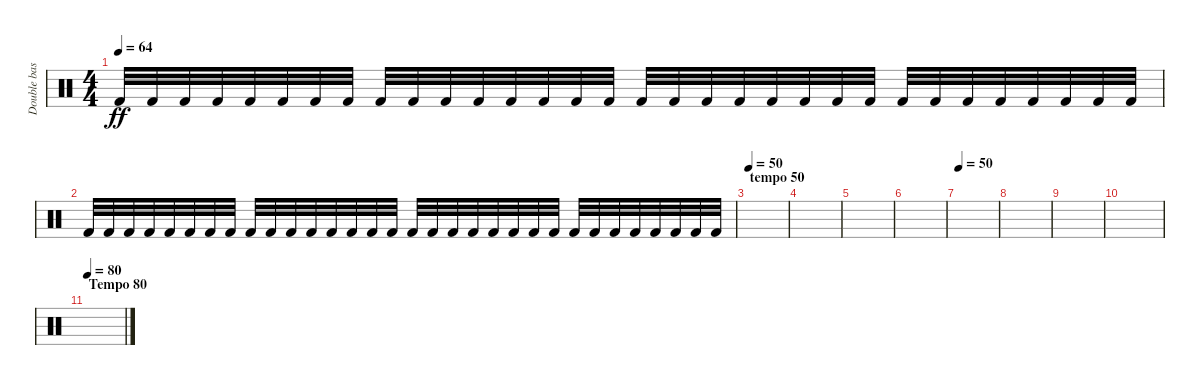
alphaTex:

\track ("Double bass drum" "Double bas") {instrument percussion}
\staff {score}
\articulation defaults
\ts (4 4)
\tempo 64
\clef neutral
\ks c "Kick (hit) 2".32{dy ff} "Kick (hit) 2".32 "Kick (hit) 2".32 "Kick (hit) 2".32 "Kick (hit) 2".32 "Kick (hit) 2".32 "Kick (hit) 2".32 "Kick (hit) 2".32 "Kick (hit) 2".32 "Kick (hit) 2".32 "Kick (hit) 2".32 "Kick (hit) 2".32 "Kick (hit) 2".32 "Kick (hit) 2".32 "Kick (hit) 2".32 "Kick (hit) 2".32 "Kick (hit) 2".32 "Kick (hit) 2".32 "Kick (hit) 2".32 "Kick (hit) 2".32 "Kick (hit) 2".32 "Kick (hit) 2".32 "Kick (hit) 2".32 "Kick (hit) 2".32 "Kick (hit) 2".32 "Kick (hit) 2".32 "Kick (hit) 2".32 "Kick (hit) 2".32 "Kick (hit) 2".32 "Kick (hit) 2".32 "Kick (hit) 2".32 "Kick (hit) 2".32
|
"Kick (hit) 2".32 "Kick (hit) 2".32 "Kick (hit) 2".32 "Kick (hit) 2".32 "Kick (hit) 2".32 "Kick (hit) 2".32 "Kick (hit) 2".32 "Kick (hit) 2".32 "Kick (hit) 2".32 "Kick (hit) 2".32 "Kick (hit) 2".32 "Kick (hit) 2".32 "Kick (hit) 2".32 "Kick (hit) 2".32 "Kick (hit) 2".32 "Kick (hit) 2".32 "Kick (hit) 2".32 "Kick (hit) 2".32 "Kick (hit) 2".32 "Kick (hit) 2".32 "Kick (hit) 2".32 "Kick (hit) 2".32 "Kick (hit) 2".32 "Kick (hit) 2".32 "Kick (hit) 2".32 "Kick (hit) 2".32 "Kick (hit) 2".32 "Kick (hit) 2".32 "Kick (hit) 2".32 "Kick (hit) 2".32 "Kick (hit) 2".32 "Kick (hit) 2".32 |
\section ("" "tempo 50")
\tempo 50
|
|
|
|
\tempo 50
|
|
|
|
\section ("" "Tempo 80")
\tempo 80
